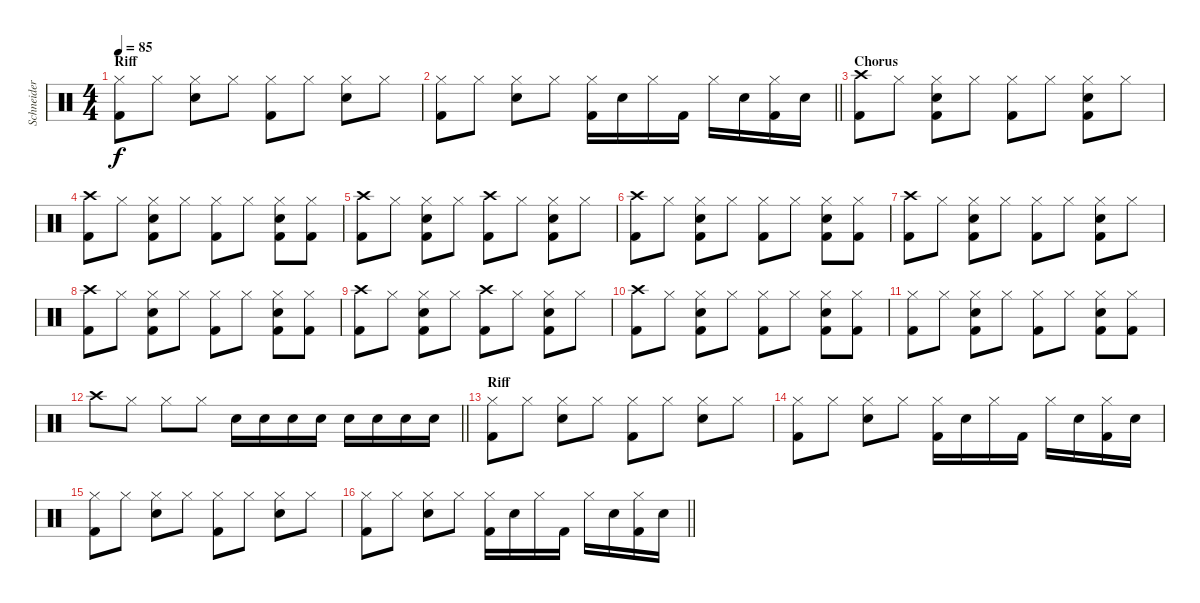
\track ("Schneider" "Schneider") {instrument percussion}
\staff {score}
\articulation defaults
\ts (4 4)
\section ("" "Riff")
\tempo 85
\clef neutral
\ks c
("Hi-Hat (closed)" "Kick (hit) 2").8{dy f} "Hi-Hat (closed)".8 ("Hi-Hat (closed)" "Electric Snare (hit)").8 "Hi-Hat (closed)".8 ("Hi-Hat (closed)" "Kick (hit) 2").8 "Hi-Hat (closed)".8 ("Hi-Hat (closed)" "Electric Snare (hit)").8 "Hi-Hat (closed)".8 |
\barLineRight lightlight
("Hi-Hat (closed)" "Kick (hit) 2").8 "Hi-Hat (closed)".8 ("Hi-Hat (closed)" "Electric Snare (hit)").8 "Hi-Hat (closed)".8 ("Hi-Hat (closed)" "Kick (hit) 2").16 "Electric Snare (hit)".16 "Hi-Hat (closed)".16 "Kick (hit) 2".16 "Hi-Hat (closed)".16 "Electric Snare (hit)".16 ("Hi-Hat (closed)" "Kick (hit) 2").16 "Electric Snare (hit)".16 |
\section ("" "Chorus")
("Crash high (hit)" "Kick (hit) 2").8 "Hi-Hat (closed)".8 ("Hi-Hat (closed)" "Electric Snare (hit)" "Kick (hit) 2").8 "Hi-Hat (closed)".8 ("Hi-Hat (closed)" "Kick (hit) 2").8 "Hi-Hat (closed)".8 ("Hi-Hat (closed)" "Electric Snare (hit)" "Kick (hit) 2").8 "Hi-Hat (closed)".8 |
("Crash high (hit)" "Kick (hit) 2").8 "Hi-Hat (closed)".8 ("Hi-Hat (closed)" "Electric Snare (hit)" "Kick (hit) 2").8 "Hi-Hat (closed)".8 ("Hi-Hat (closed)" "Kick (hit) 2").8 "Hi-Hat (closed)".8 ("Hi-Hat (closed)" "Electric Snare (hit)" "Kick (hit) 2").8 ("Hi-Hat (closed)" "Kick (hit) 2").8 |
("Crash high (hit)" "Kick (hit) 2").8 "Hi-Hat (closed)".8 ("Hi-Hat (closed)" "Electric Snare (hit)" "Kick (hit) 2").8 "Hi-Hat (closed)".8 ("Crash high (hit)" "Kick (hit) 2").8 "Hi-Hat (closed)".8 ("Hi-Hat (closed)" "Electric Snare (hit)" "Kick (hit) 2").8 "Hi-Hat (closed)".8 |
("Crash high (hit)" "Kick (hit) 2").8 "Hi-Hat (closed)".8 ("Hi-Hat (closed)" "Electric Snare (hit)" "Kick (hit) 2").8 "Hi-Hat (closed)".8 ("Hi-Hat (closed)" "Kick (hit) 2").8 "Hi-Hat (closed)".8 ("Hi-Hat (closed)" "Electric Snare (hit)" "Kick (hit) 2").8 ("Hi-Hat (closed)" "Kick (hit) 2").8 |
("Crash high (hit)" "Kick (hit) 2").8 "Hi-Hat (closed)".8 ("Hi-Hat (closed)" "Electric Snare (hit)" "Kick (hit) 2").8 "Hi-Hat (closed)".8 ("Hi-Hat (closed)" "Kick (hit) 2").8 "Hi-Hat (closed)".8 ("Hi-Hat (closed)" "Electric Snare (hit)" "Kick (hit) 2").8 "Hi-Hat (closed)".8 |
("Crash high (hit)" "Kick (hit) 2").8 "Hi-Hat (closed)".8 ("Hi-Hat (closed)" "Electric Snare (hit)" "Kick (hit) 2").8 "Hi-Hat (closed)".8 ("Hi-Hat (closed)" "Kick (hit) 2").8 "Hi-Hat (closed)".8 ("Hi-Hat (closed)" "Electric Snare (hit)" "Kick (hit) 2").8 ("Hi-Hat (closed)" "Kick (hit) 2").8 |
("Crash high (hit)" "Kick (hit) 2").8 "Hi-Hat (closed)".8 ("Hi-Hat (closed)" "Electric Snare (hit)" "Kick (hit) 2").8 "Hi-Hat (closed)".8 ("Crash high (hit)" "Kick (hit) 2").8 "Hi-Hat (closed)".8 ("Hi-Hat (closed)" "Electric Snare (hit)" "Kick (hit) 2").8 "Hi-Hat (closed)".8 |
("Crash high (hit)" "Kick (hit) 2").8 "Hi-Hat (closed)".8 ("Hi-Hat (closed)" "Electric Snare (hit)" "Kick (hit) 2").8 "Hi-Hat (closed)".8 ("Hi-Hat (closed)" "Kick (hit) 2").8 "Hi-Hat (closed)".8 ("Hi-Hat (closed)" "Electric Snare (hit)" "Kick (hit) 2").8 ("Hi-Hat (closed)" "Kick (hit) 2").8 |
("Hi-Hat (closed)" "Kick (hit) 2").8 "Hi-Hat (closed)".8 ("Hi-Hat (closed)" "Electric Snare (hit)" "Kick (hit) 2").8 "Hi-Hat (closed)".8 ("Hi-Hat (closed)" "Kick (hit) 2").8 "Hi-Hat (closed)".8 ("Hi-Hat (closed)" "Electric Snare (hit)" "Kick (hit) 2").8 ("Hi-Hat (closed)" "Kick (hit) 2").8 |
\barLineRight lightlight "Crash high (hit)".8 "Hi-Hat (closed)".8 "Hi-Hat (closed)".8 "Hi-Hat (closed)".8 "Electric Snare (hit)".16 "Electric Snare (hit)".16 "Electric Snare (hit)".16 "Electric Snare (hit)".16 "Electric Snare (hit)".16 "Electric Snare (hit)".16 "Electric Snare (hit)".16 "Electric Snare (hit)".16
|
\section ("" "Riff")
("Hi-Hat (closed)" "Kick (hit) 2").8 "Hi-Hat (closed)".8 ("Hi-Hat (closed)" "Electric Snare (hit)").8 "Hi-Hat (closed)".8 ("Hi-Hat (closed)" "Kick (hit) 2").8 "Hi-Hat (closed)".8 ("Hi-Hat (closed)" "Electric Snare (hit)").8 "Hi-Hat (closed)".8 |
("Hi-Hat (closed)" "Kick (hit) 2").8 "Hi-Hat (closed)".8 ("Hi-Hat (closed)" "Electric Snare (hit)").8 "Hi-Hat (closed)".8 ("Hi-Hat (closed)" "Kick (hit) 2").16 "Electric Snare (hit)".16 "Hi-Hat (closed)".16 "Kick (hit) 2".16 "Hi-Hat (closed)".16 "Electric Snare (hit)".16 ("Hi-Hat (closed)" "Kick (hit) 2").16 "Electric Snare (hit)".16 |
("Hi-Hat (closed)" "Kick (hit) 2").8 "Hi-Hat (closed)".8 ("Hi-Hat (closed)" "Electric Snare (hit)").8 "Hi-Hat (closed)".8 ("Hi-Hat (closed)" "Kick (hit) 2").8 "Hi-Hat (closed)".8 ("Hi-Hat (closed)" "Electric Snare (hit)").8 "Hi-Hat (closed)".8 |
\barLineRight lightlight
("Hi-Hat (closed)" "Kick (hit) 2").8 "Hi-Hat (closed)".8 ("Hi-Hat (closed)" "Electric Snare (hit)").8 "Hi-Hat (closed)".8 ("Hi-Hat (closed)" "Kick (hit) 2").16 "Electric Snare (hit)".16 "Hi-Hat (closed)".16 "Kick (hit) 2".16 "Hi-Hat (closed)".16 "Electric Snare (hit)".16 ("Hi-Hat (closed)" "Kick (hit) 2").16 "Electric Snare (hit)".16
